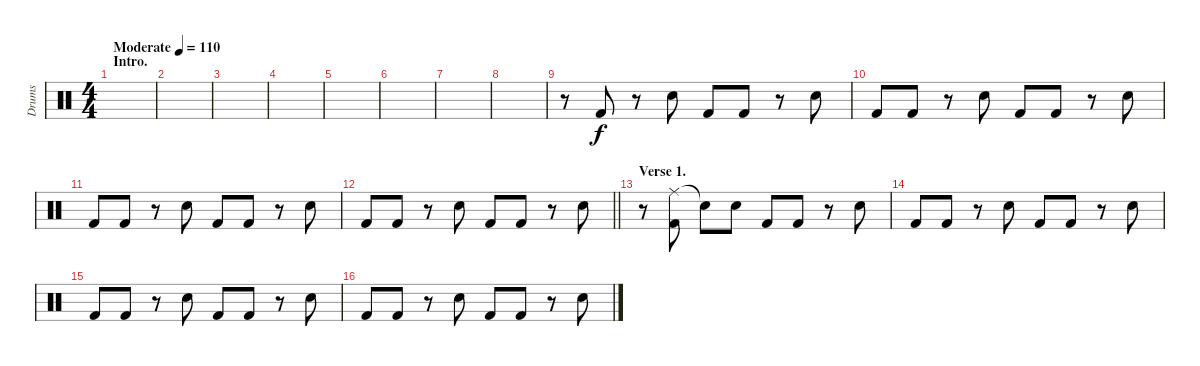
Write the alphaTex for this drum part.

\track ("Drums" "Drums") {instrument percussion}
\staff {score}
\articulation defaults
\ts (4 4)
\section ("" "Intro.")
\tempo (110 "Moderate")
\clef neutral
\ks c
|
|
|
|
|
|
|
|
r.8 "Kick (hit) 2".8 r.8 "Snare (hit) 2".8 "Kick (hit) 2".8 "Kick (hit) 2".8 r.8 "Snare (hit) 2".8 |
"Kick (hit) 2".8 "Kick (hit) 2".8 r.8 "Snare (hit) 2".8 "Kick (hit) 2".8 "Kick (hit) 2".8 r.8 "Snare (hit) 2".8 |
"Kick (hit) 2".8 "Kick (hit) 2".8 r.8 "Snare (hit) 2".8 "Kick (hit) 2".8 "Kick (hit) 2".8 r.8 "Snare (hit) 2".8 |
\barLineRight lightlight "Kick (hit) 2".8 "Kick (hit) 2".8
r.8 "Snare (hit) 2".8 "Kick (hit) 2".8 "Kick (hit) 2".8 r.8 "Snare (hit) 2".8 |
\section ("" "Verse 1.")
r.8 ("Ride (middle)" "Kick (hit) 2").8 "Snare (hit)"{t}.8 "Snare (hit) 2".8 "Kick (hit) 2".8 "Kick (hit) 2".8 r.8 "Snare (hit) 2".8 |
"Kick (hit) 2".8 "Kick (hit) 2".8 r.8 "Snare (hit) 2".8 "Kick (hit) 2".8 "Kick (hit) 2".8 r.8 "Snare (hit) 2".8 |
"Kick (hit) 2".8 "Kick (hit) 2".8 r.8 "Snare (hit) 2".8 "Kick (hit) 2".8 "Kick (hit) 2".8 r.8 "Snare (hit) 2".8 |
"Kick (hit) 2".8 "Kick (hit) 2".8 r.8 "Snare (hit) 2".8 "Kick (hit) 2".8 "Kick (hit) 2".8 r.8 "Snare (hit) 2".8
